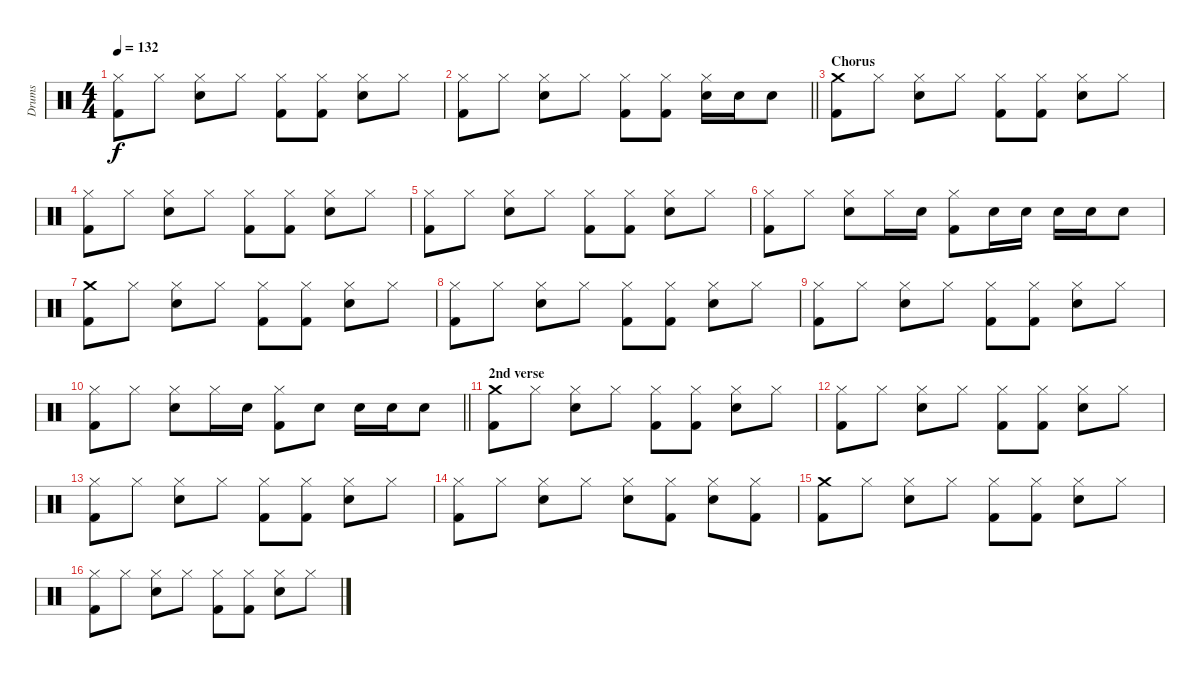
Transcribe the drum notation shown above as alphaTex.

\track ("Drums" "Drums") {instrument percussion}
\staff {score}
\articulation defaults
\ts (4 4)
\tempo 132
\clef neutral
\ks c
("Kick (hit) 2" "Hi-Hat (closed)").8{dy f} "Hi-Hat (closed)".8 ("Snare (hit) 2" "Hi-Hat (closed)").8 "Hi-Hat (closed)".8 ("Kick (hit) 2" "Hi-Hat (closed)").8 ("Kick (hit) 2" "Hi-Hat (closed)").8 ("Snare (hit) 2" "Hi-Hat (closed)").8 "Hi-Hat (closed)".8 |
\barLineRight lightlight
("Kick (hit) 2" "Hi-Hat (closed)").8 "Hi-Hat (closed)".8 ("Snare (hit) 2" "Hi-Hat (closed)").8 "Hi-Hat (closed)".8 ("Kick (hit) 2" "Hi-Hat (closed)").8 ("Kick (hit) 2" "Hi-Hat (closed)").8 ("Snare (hit) 2" "Hi-Hat (closed)").16 "Snare (hit) 2".16 "Snare (hit) 2".8 |
\section ("" "Chorus")
("Kick (hit) 2" "Crash medium (hit)").8 "Hi-Hat (closed)".8 ("Snare (hit) 2" "Hi-Hat (closed)").8 "Hi-Hat (closed)".8 ("Kick (hit) 2" "Hi-Hat (closed)").8 ("Kick (hit) 2" "Hi-Hat (closed)").8 ("Snare (hit) 2" "Hi-Hat (closed)").8 "Hi-Hat (closed)".8 |
("Kick (hit) 2" "Hi-Hat (closed)").8 "Hi-Hat (closed)".8 ("Snare (hit) 2" "Hi-Hat (closed)").8 "Hi-Hat (closed)".8 ("Kick (hit) 2" "Hi-Hat (closed)").8 ("Kick (hit) 2" "Hi-Hat (closed)").8 ("Snare (hit) 2" "Hi-Hat (closed)").8 "Hi-Hat (closed)".8 |
("Kick (hit) 2" "Hi-Hat (closed)").8 "Hi-Hat (closed)".8 ("Snare (hit) 2" "Hi-Hat (closed)").8 "Hi-Hat (closed)".8 ("Kick (hit) 2" "Hi-Hat (closed)").8 ("Kick (hit) 2" "Hi-Hat (closed)").8 ("Snare (hit) 2" "Hi-Hat (closed)").8 "Hi-Hat (closed)".8 |
("Kick (hit) 2" "Hi-Hat (closed)").8 "Hi-Hat (closed)".8 ("Snare (hit) 2" "Hi-Hat (closed)").8 "Hi-Hat (closed)".16 "Snare (hit) 2".16 ("Kick (hit) 2" "Hi-Hat (closed)").8 "Snare (hit) 2".16 "Snare (hit) 2".16 "Snare (hit) 2".16 "Snare (hit) 2".16 "Snare (hit) 2".8 |
("Kick (hit) 2" "Crash medium (hit)").8 "Hi-Hat (closed)".8 ("Snare (hit) 2" "Hi-Hat (closed)").8 "Hi-Hat (closed)".8 ("Kick (hit) 2" "Hi-Hat (closed)").8 ("Kick (hit) 2" "Hi-Hat (closed)").8 ("Snare (hit) 2" "Hi-Hat (closed)").8 "Hi-Hat (closed)".8 |
("Kick (hit) 2" "Hi-Hat (closed)").8 "Hi-Hat (closed)".8 ("Snare (hit) 2" "Hi-Hat (closed)").8 "Hi-Hat (closed)".8 ("Kick (hit) 2" "Hi-Hat (closed)").8 ("Kick (hit) 2" "Hi-Hat (closed)").8 ("Snare (hit) 2" "Hi-Hat (closed)").8 "Hi-Hat (closed)".8 |
("Kick (hit) 2" "Hi-Hat (closed)").8 "Hi-Hat (closed)".8 ("Snare (hit) 2" "Hi-Hat (closed)").8 "Hi-Hat (closed)".8 ("Kick (hit) 2" "Hi-Hat (closed)").8 ("Kick (hit) 2" "Hi-Hat (closed)").8 ("Snare (hit) 2" "Hi-Hat (closed)").8 "Hi-Hat (closed)".8 |
\barLineRight lightlight
("Kick (hit) 2" "Hi-Hat (closed)").8 "Hi-Hat (closed)".8 ("Snare (hit) 2" "Hi-Hat (closed)").8 "Hi-Hat (closed)".16 "Snare (hit) 2".16 ("Kick (hit) 2" "Hi-Hat (closed)").8 "Snare (hit) 2".8 "Snare (hit) 2".16 "Snare (hit) 2".16 "Snare (hit) 2".8 |
\section ("" "2nd verse")
("Kick (hit) 2" "Crash medium (hit)").8 "Hi-Hat (closed)".8 ("Snare (hit) 2" "Hi-Hat (closed)").8 "Hi-Hat (closed)".8 ("Kick (hit) 2" "Hi-Hat (closed)").8 ("Kick (hit) 2" "Hi-Hat (closed)").8 ("Snare (hit) 2" "Hi-Hat (closed)").8 "Hi-Hat (closed)".8 |
("Kick (hit) 2" "Hi-Hat (closed)").8 "Hi-Hat (closed)".8 ("Snare (hit) 2" "Hi-Hat (closed)").8 "Hi-Hat (closed)".8 ("Kick (hit) 2" "Hi-Hat (closed)").8 ("Kick (hit) 2" "Hi-Hat (closed)").8 ("Snare (hit) 2" "Hi-Hat (closed)").8 "Hi-Hat (closed)".8 |
("Kick (hit) 2" "Hi-Hat (closed)").8 "Hi-Hat (closed)".8 ("Snare (hit) 2" "Hi-Hat (closed)").8 "Hi-Hat (closed)".8 ("Kick (hit) 2" "Hi-Hat (closed)").8 ("Kick (hit) 2" "Hi-Hat (closed)").8 ("Snare (hit) 2" "Hi-Hat (closed)").8 "Hi-Hat (closed)".8 |
("Kick (hit) 2" "Hi-Hat (closed)").8 "Hi-Hat (closed)".8 ("Snare (hit) 2" "Hi-Hat (closed)").8 "Hi-Hat (closed)".8 ("Snare (hit) 2" "Hi-Hat (closed)").8 ("Kick (hit) 2" "Hi-Hat (closed)").8 ("Snare (hit) 2" "Hi-Hat (closed)").8 ("Kick (hit) 2" "Hi-Hat (closed)").8 |
("Kick (hit) 2" "Crash medium (hit)").8 "Hi-Hat (closed)".8 ("Snare (hit) 2" "Hi-Hat (closed)").8 "Hi-Hat (closed)".8 ("Kick (hit) 2" "Hi-Hat (closed)").8 ("Kick (hit) 2" "Hi-Hat (closed)").8 ("Snare (hit) 2" "Hi-Hat (closed)").8 "Hi-Hat (closed)".8 |
("Kick (hit) 2" "Hi-Hat (closed)").8 "Hi-Hat (closed)".8 ("Snare (hit) 2" "Hi-Hat (closed)").8 "Hi-Hat (closed)".8 ("Kick (hit) 2" "Hi-Hat (closed)").8 ("Kick (hit) 2" "Hi-Hat (closed)").8 ("Snare (hit) 2" "Hi-Hat (closed)").8 "Hi-Hat (closed)".8
